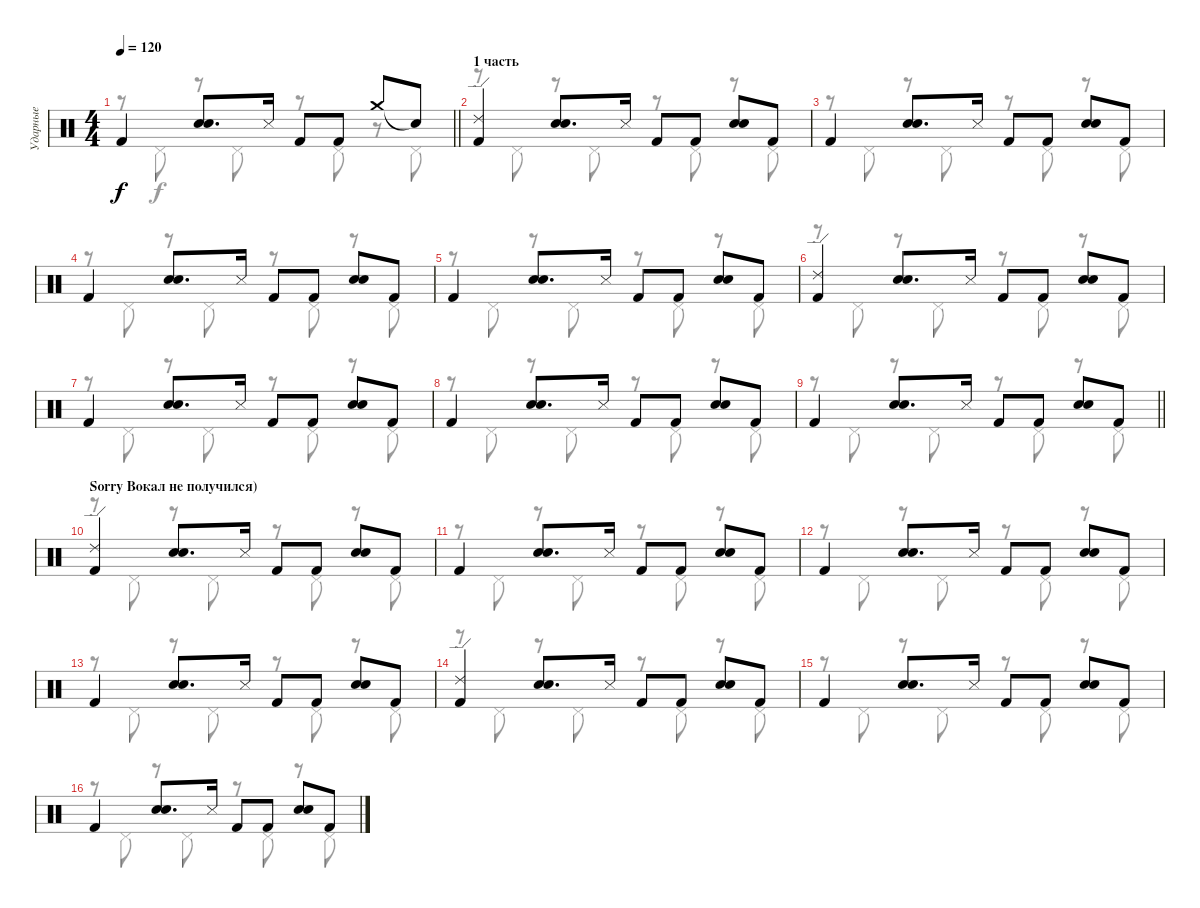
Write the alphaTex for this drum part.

\track ("Ударные" "Ударные") {instrument percussion}
\staff {score}
\articulation defaults
\voice
\ts (4 4)
\tempo 120
\clef neutral
\barLineRight lightlight
\ks c "Kick (hit) 2".4{dy f}
("Hand Clap (hit)" "Snare (hit) 2").8{d} "Metronome (hit)".16 "Kick (hit) 2".8 "Kick (hit) 2".8 "Crash medium (hit)".8 "Snare (hit)"{t}.8 |
\section ("" "1 часть")
("Kick (hit) 2" "Ride (edge) 2").4 ("Hand Clap (hit)" "Snare (hit) 2").8{d} "Metronome (hit)".16 "Kick (hit) 2".8 "Kick (hit) 2".8 ("Hand Clap (hit)" "Snare (hit) 2").8 "Kick (hit) 2".8 |
"Kick (hit) 2".4 ("Hand Clap (hit)" "Snare (hit) 2").8{d} "Metronome (hit)".16 "Kick (hit) 2".8 "Kick (hit) 2".8 ("Hand Clap (hit)" "Snare (hit) 2").8 "Kick (hit) 2".8 |
"Kick (hit) 2".4 ("Hand Clap (hit)" "Snare (hit) 2").8{d} "Metronome (hit)".16 "Kick (hit) 2".8 "Kick (hit) 2".8 ("Hand Clap (hit)" "Snare (hit) 2").8 "Kick (hit) 2".8 |
"Kick (hit) 2".4 ("Hand Clap (hit)" "Snare (hit) 2").8{d} "Metronome (hit)".16 "Kick (hit) 2".8 "Kick (hit) 2".8 ("Hand Clap (hit)" "Snare (hit) 2").8 "Kick (hit) 2".8 |
("Kick (hit) 2" "Ride (edge) 2").4 ("Hand Clap (hit)" "Snare (hit) 2").8{d} "Metronome (hit)".16 "Kick (hit) 2".8 "Kick (hit) 2".8 ("Hand Clap (hit)" "Snare (hit) 2").8 "Kick (hit) 2".8 |
"Kick (hit) 2".4 ("Hand Clap (hit)" "Snare (hit) 2").8{d} "Metronome (hit)".16 "Kick (hit) 2".8 "Kick (hit) 2".8 ("Hand Clap (hit)" "Snare (hit) 2").8 "Kick (hit) 2".8 |
"Kick (hit) 2".4 ("Hand Clap (hit)" "Snare (hit) 2").8{d} "Metronome (hit)".16 "Kick (hit) 2".8 "Kick (hit) 2".8 ("Hand Clap (hit)" "Snare (hit) 2").8 "Kick (hit) 2".8 |
\barLineRight lightlight "Kick (hit) 2".4
("Hand Clap (hit)" "Snare (hit) 2").8{d} "Metronome (hit)".16 "Kick (hit) 2".8 "Kick (hit) 2".8 ("Hand Clap (hit)" "Snare (hit) 2").8 "Kick (hit) 2".8 |
\section ("" "Sorry Вокал не получился)")
("Kick (hit) 2" "Ride (edge) 2").4 ("Hand Clap (hit)" "Snare (hit) 2").8{d} "Metronome (hit)".16 "Kick (hit) 2".8 "Kick (hit) 2".8 ("Hand Clap (hit)" "Snare (hit) 2").8 "Kick (hit) 2".8 |
"Kick (hit) 2".4 ("Hand Clap (hit)" "Snare (hit) 2").8{d} "Metronome (hit)".16 "Kick (hit) 2".8 "Kick (hit) 2".8 ("Hand Clap (hit)" "Snare (hit) 2").8 "Kick (hit) 2".8 |
"Kick (hit) 2".4 ("Hand Clap (hit)" "Snare (hit) 2").8{d} "Metronome (hit)".16 "Kick (hit) 2".8 "Kick (hit) 2".8 ("Hand Clap (hit)" "Snare (hit) 2").8 "Kick (hit) 2".8 |
"Kick (hit) 2".4 ("Hand Clap (hit)" "Snare (hit) 2").8{d} "Metronome (hit)".16 "Kick (hit) 2".8 "Kick (hit) 2".8 ("Hand Clap (hit)" "Snare (hit) 2").8 "Kick (hit) 2".8 |
("Kick (hit) 2" "Ride (edge) 2").4 ("Hand Clap (hit)" "Snare (hit) 2").8{d} "Metronome (hit)".16 "Kick (hit) 2".8 "Kick (hit) 2".8 ("Hand Clap (hit)" "Snare (hit) 2").8 "Kick (hit) 2".8 |
"Kick (hit) 2".4 ("Hand Clap (hit)" "Snare (hit) 2").8{d} "Metronome (hit)".16 "Kick (hit) 2".8 "Kick (hit) 2".8 ("Hand Clap (hit)" "Snare (hit) 2").8 "Kick (hit) 2".8 |
"Kick (hit) 2".4 ("Hand Clap (hit)" "Snare (hit) 2").8{d} "Metronome (hit)".16 "Kick (hit) 2".8 "Kick (hit) 2".8 ("Hand Clap (hit)" "Snare (hit) 2").8 "Kick (hit) 2".8
\voice
\clef neutral
\ottava regular
\simile none
\barLineRight lightlight
\ks c
r.8{dy f} "Pedal Hi-Hat (hit)".8 r.8 "Pedal Hi-Hat (hit)".8 r.8 "Pedal Hi-Hat (hit)".8 r.8 "Pedal Hi-Hat (hit)".8 |
r.8 "Pedal Hi-Hat (hit)".8 r.8 "Pedal Hi-Hat (hit)".8 r.8 "Pedal Hi-Hat (hit)".8 r.8 "Pedal Hi-Hat (hit)".8 |
r.8 "Pedal Hi-Hat (hit)".8 r.8 "Pedal Hi-Hat (hit)".8 r.8 "Pedal Hi-Hat (hit)".8 r.8 "Pedal Hi-Hat (hit)".8 |
r.8 "Pedal Hi-Hat (hit)".8 r.8 "Pedal Hi-Hat (hit)".8 r.8 "Pedal Hi-Hat (hit)".8 r.8 "Pedal Hi-Hat (hit)".8 |
r.8 "Pedal Hi-Hat (hit)".8 r.8 "Pedal Hi-Hat (hit)".8 r.8 "Pedal Hi-Hat (hit)".8 r.8 "Pedal Hi-Hat (hit)".8 |
r.8 "Pedal Hi-Hat (hit)".8 r.8 "Pedal Hi-Hat (hit)".8 r.8 "Pedal Hi-Hat (hit)".8 r.8 "Pedal Hi-Hat (hit)".8 |
r.8 "Pedal Hi-Hat (hit)".8 r.8 "Pedal Hi-Hat (hit)".8 r.8 "Pedal Hi-Hat (hit)".8 r.8 "Pedal Hi-Hat (hit)".8 |
r.8 "Pedal Hi-Hat (hit)".8 r.8 "Pedal Hi-Hat (hit)".8 r.8 "Pedal Hi-Hat (hit)".8 r.8 "Pedal Hi-Hat (hit)".8 |
\barLineRight lightlight
r.8 "Pedal Hi-Hat (hit)".8 r.8 "Pedal Hi-Hat (hit)".8 r.8 "Pedal Hi-Hat (hit)".8 r.8 "Pedal Hi-Hat (hit)".8 |
r.8 "Pedal Hi-Hat (hit)".8 r.8 "Pedal Hi-Hat (hit)".8 r.8 "Pedal Hi-Hat (hit)".8 r.8 "Pedal Hi-Hat (hit)".8 |
r.8 "Pedal Hi-Hat (hit)".8 r.8 "Pedal Hi-Hat (hit)".8 r.8 "Pedal Hi-Hat (hit)".8 r.8 "Pedal Hi-Hat (hit)".8 |
r.8 "Pedal Hi-Hat (hit)".8 r.8 "Pedal Hi-Hat (hit)".8 r.8 "Pedal Hi-Hat (hit)".8 r.8 "Pedal Hi-Hat (hit)".8 |
r.8 "Pedal Hi-Hat (hit)".8 r.8 "Pedal Hi-Hat (hit)".8 r.8 "Pedal Hi-Hat (hit)".8 r.8 "Pedal Hi-Hat (hit)".8 |
r.8 "Pedal Hi-Hat (hit)".8 r.8 "Pedal Hi-Hat (hit)".8 r.8 "Pedal Hi-Hat (hit)".8 r.8 "Pedal Hi-Hat (hit)".8 |
r.8 "Pedal Hi-Hat (hit)".8 r.8 "Pedal Hi-Hat (hit)".8 r.8 "Pedal Hi-Hat (hit)".8 r.8 "Pedal Hi-Hat (hit)".8 |
r.8 "Pedal Hi-Hat (hit)".8 r.8 "Pedal Hi-Hat (hit)".8 r.8 "Pedal Hi-Hat (hit)".8 r.8 "Pedal Hi-Hat (hit)".8
